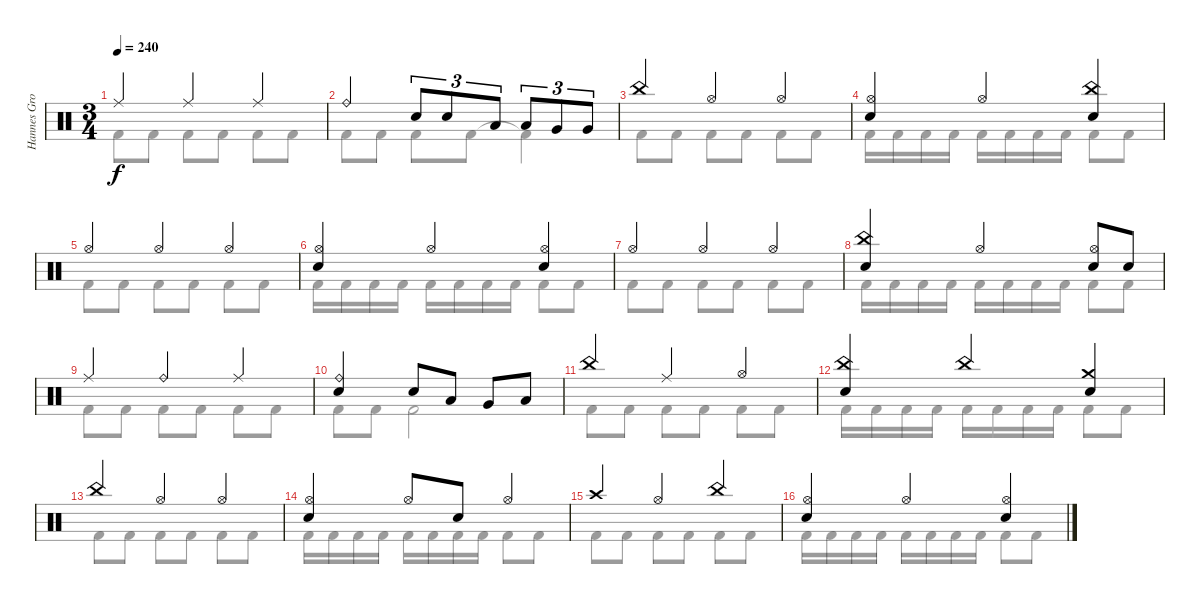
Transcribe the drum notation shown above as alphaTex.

\track ("Hannes Grossmann - drums" "Hannes Gro") {instrument percussion}
\staff {score}
\articulation defaults
\voice
\ts (3 4)
\tempo 240
\clef neutral
\ks c "Ride (middle)".4{dy f} "Ride (middle)".4 "Ride (middle)".4
|
"Ride (bell)".4 "Electric Snare (hit)".8{tu (3 2)} "Electric Snare (hit)".8{tu (3 2)} "Low Tom (hit)".8{tu (3 2)} "Low Tom (hit)".8{tu (3 2)} "Very Low Tom (hit)".8{tu (3 2)} "Very Low Tom (hit)".8{tu (3 2)} |
"China (hit)".4 "Hi-Hat (open)".4 "Hi-Hat (open)".4 |
("Hi-Hat (open)" "Electric Snare (hit)").4 "Hi-Hat (open)".4 ("China (hit)" "Electric Snare (hit)").4 |
"Hi-Hat (open)".4 "Hi-Hat (open)".4 "Hi-Hat (open)".4 |
("Hi-Hat (open)" "Electric Snare (hit)").4 "Hi-Hat (open)".4 ("Hi-Hat (open)" "Electric Snare (hit)").4 |
"Hi-Hat (open)".4 "Hi-Hat (open)".4 "Hi-Hat (open)".4 |
("China (hit)" "Electric Snare (hit)").4 "Hi-Hat (open)".4 ("Hi-Hat (open)" "Electric Snare (hit)").8 "Electric Snare (hit)".8 |
"Ride (middle)".4 "Ride (bell)".4 "Ride (middle)".4 |
("Ride (bell)" "Electric Snare (hit)").4 "Electric Snare (hit)".8 "Low Tom (hit)".8 "Very Low Tom (hit)".8 "Low Floor Tom (hit)".8 |
"China (hit)".4 "Ride (middle)".4 "Hi-Hat (open)".4 |
("China (hit)" "Electric Snare (hit)").4 "China (hit)".4 ("Crash medium (hit)" "Electric Snare (hit)").4 |
"China (hit)".4 "Hi-Hat (open)".4 "Hi-Hat (open)".4 |
("Hi-Hat (open)" "Electric Snare (hit)").4 "Hi-Hat (open)".8 "Electric Snare (hit)".8 "Hi-Hat (open)".4 |
"Crash high (hit)".4 "Hi-Hat (open)".4 "China (hit)".4 |
("Hi-Hat (open)" "Electric Snare (hit)").4 "Hi-Hat (open)".4 ("Hi-Hat (open)" "Electric Snare (hit)").4
\voice
\clef neutral
\ottava regular
\simile none
\ks c "Kick (hit) 2".8{dy f} "Kick (hit) 2".8 "Kick (hit) 2".8 "Kick (hit) 2".8 "Kick (hit) 2".8 "Kick (hit) 2".8
|
"Kick (hit) 2".8 "Kick (hit) 2".8 "Kick (hit) 2".8 "Kick (hit) 2".8 "Kick (hit) 2"{t}.4 |
"Kick (hit) 2".8 "Kick (hit) 2".8 "Kick (hit) 2".8 "Kick (hit) 2".8 "Kick (hit) 2".8 "Kick (hit) 2".8 |
"Kick (hit) 2".16 "Kick (hit) 2".16 "Kick (hit) 2".16 "Kick (hit) 2".16 "Kick (hit) 2".16 "Kick (hit) 2".16 "Kick (hit) 2".16 "Kick (hit) 2".16 "Kick (hit) 2".8 "Kick (hit) 2".8 |
"Kick (hit) 2".8 "Kick (hit) 2".8 "Kick (hit) 2".8 "Kick (hit) 2".8 "Kick (hit) 2".8 "Kick (hit) 2".8 |
"Kick (hit) 2".16 "Kick (hit) 2".16 "Kick (hit) 2".16 "Kick (hit) 2".16 "Kick (hit) 2".16 "Kick (hit) 2".16 "Kick (hit) 2".16 "Kick (hit) 2".16 "Kick (hit) 2".8 "Kick (hit) 2".8 |
"Kick (hit) 2".8 "Kick (hit) 2".8 "Kick (hit) 2".8 "Kick (hit) 2".8 "Kick (hit) 2".8 "Kick (hit) 2".8 |
"Kick (hit) 2".16 "Kick (hit) 2".16 "Kick (hit) 2".16 "Kick (hit) 2".16 "Kick (hit) 2".16 "Kick (hit) 2".16 "Kick (hit) 2".16 "Kick (hit) 2".16 "Kick (hit) 2".8 "Kick (hit) 2".8 |
"Kick (hit) 2".8 "Kick (hit) 2".8 "Kick (hit) 2".8 "Kick (hit) 2".8 "Kick (hit) 2".8 "Kick (hit) 2".8 |
"Kick (hit) 2".8 "Kick (hit) 2".8 "Kick (hit) 2".2 |
"Kick (hit) 2".8 "Kick (hit) 2".8 "Kick (hit) 2".8 "Kick (hit) 2".8 "Kick (hit) 2".8 "Kick (hit) 2".8 |
"Kick (hit) 2".16 "Kick (hit) 2".16 "Kick (hit) 2".16 "Kick (hit) 2".16 "Kick (hit) 2".16 "Kick (hit) 2".16 "Kick (hit) 2".16 "Kick (hit) 2".16 "Kick (hit) 2".8 "Kick (hit) 2".8 |
"Kick (hit) 2".8 "Kick (hit) 2".8 "Kick (hit) 2".8 "Kick (hit) 2".8 "Kick (hit) 2".8 "Kick (hit) 2".8 |
"Kick (hit) 2".16 "Kick (hit) 2".16 "Kick (hit) 2".16 "Kick (hit) 2".16 "Kick (hit) 2".16 "Kick (hit) 2".16 "Kick (hit) 2".16 "Kick (hit) 2".16 "Kick (hit) 2".8 "Kick (hit) 2".8 |
"Kick (hit) 2".8 "Kick (hit) 2".8 "Kick (hit) 2".8 "Kick (hit) 2".8 "Kick (hit) 2".8 "Kick (hit) 2".8 |
"Kick (hit) 2".16 "Kick (hit) 2".16 "Kick (hit) 2".16 "Kick (hit) 2".16 "Kick (hit) 2".16 "Kick (hit) 2".16 "Kick (hit) 2".16 "Kick (hit) 2".16 "Kick (hit) 2".8 "Kick (hit) 2".8
